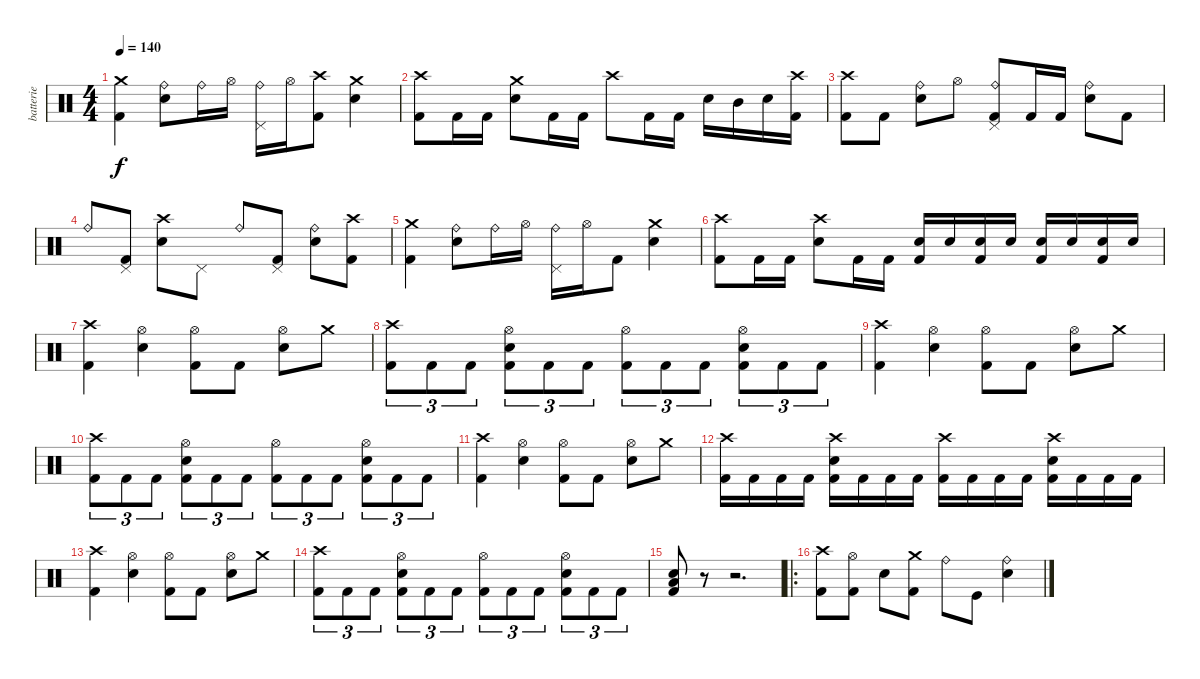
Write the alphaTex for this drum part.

\track ("batterie" "batterie") {instrument percussion}
\staff {score}
\articulation defaults
\ts (4 4)
\tempo 140
\clef neutral
\ks c
("Crash medium (hit)" "Kick (hit) 2").4{dy f} ("Ride (bell)" "Electric Snare (hit)").8 "Ride (bell)".16 "Hi-Hat (open)".16 ("Ride (bell)" "Pedal Hi-Hat (hit)").16 "Hi-Hat (open)".16 ("Crash high (hit)" "Kick (hit) 2").8 ("Crash medium (hit)" "Electric Snare (hit)").4 |
("Crash high (hit)" "Kick (hit) 2").8 "Kick (hit) 2".16 "Kick (hit) 2".16 ("Crash medium (hit)" "Electric Snare (hit)").8 "Kick (hit) 2".16 "Kick (hit) 2".16 "Crash high (hit)".8 "Kick (hit) 2".16 "Kick (hit) 2".16 "Electric Snare (hit)".16 "Mid Tom (hit)".16 "Electric Snare (hit)".16 ("Crash high (hit)" "Kick (hit) 2").16 |
("Crash high (hit)" "Kick (hit) 2").8 "Kick (hit) 2".8 ("Ride (bell)" "Electric Snare (hit)").8 "Hi-Hat (open)".8 ("Ride (bell)" "Pedal Hi-Hat (hit)" "Kick (hit) 2").8 "Kick (hit) 2".16 "Kick (hit) 2".16 ("Ride (bell)" "Electric Snare (hit)").8 "Kick (hit) 2".8 |
"Ride (bell)".8 ("Pedal Hi-Hat (hit)" "Kick (hit) 2").8 ("Crash high (hit)" "Electric Snare (hit)").8 "Pedal Hi-Hat (hit)".8 "Ride (bell)".8 ("Pedal Hi-Hat (hit)" "Kick (hit) 2").8 ("Ride (bell)" "Electric Snare (hit)").8 ("Crash high (hit)" "Kick (hit) 2").8 |
("Crash medium (hit)" "Kick (hit) 2").4 ("Ride (bell)" "Electric Snare (hit)").8 "Ride (bell)".16 "Hi-Hat (open)".16 ("Ride (bell)" "Pedal Hi-Hat (hit)").16 "Hi-Hat (open)".16 "Kick (hit) 2".8 ("Crash medium (hit)" "Electric Snare (hit)").4 |
("Crash high (hit)" "Kick (hit) 2").8 "Kick (hit) 2".16 "Kick (hit) 2".16 ("Crash high (hit)" "Electric Snare (hit)").8 "Kick (hit) 2".16 "Kick (hit) 2".16 ("Electric Snare (hit)" "Kick (hit) 2").16 "Electric Snare (hit)".16 ("Electric Snare (hit)" "Kick (hit) 2").16 "Electric Snare (hit)".16 ("Electric Snare (hit)" "Kick (hit) 2").16 "Electric Snare (hit)".16 ("Electric Snare (hit)" "Kick (hit) 2").16 "Electric Snare (hit)".16 |
("Crash high (hit)" "Kick (hit) 2").4 ("Hi-Hat (open)" "Electric Snare (hit)").4 ("Hi-Hat (open)" "Kick (hit) 2").8 "Kick (hit) 2".8 ("Hi-Hat (open)" "Electric Snare (hit)").8 "Crash medium (hit)".8 |
("Crash high (hit)" "Kick (hit) 2").8{tu (3 2)} "Kick (hit) 2".8{tu (3 2)} "Kick (hit) 2".8{tu (3 2)} ("Hi-Hat (open)" "Electric Snare (hit)" "Kick (hit) 2").8{tu (3 2)} "Kick (hit) 2".8{tu (3 2)} "Kick (hit) 2".8{tu (3 2)} ("Hi-Hat (open)" "Kick (hit) 2").8{tu (3 2)} "Kick (hit) 2".8{tu (3 2)} "Kick (hit) 2".8{tu (3 2)} ("Hi-Hat (open)" "Electric Snare (hit)" "Kick (hit) 2").8{tu (3 2)} "Kick (hit) 2".8{tu (3 2)} "Kick (hit) 2".8{tu (3 2)} |
("Crash high (hit)" "Kick (hit) 2").4 ("Hi-Hat (open)" "Electric Snare (hit)").4 ("Hi-Hat (open)" "Kick (hit) 2").8 "Kick (hit) 2".8 ("Hi-Hat (open)" "Electric Snare (hit)").8 "Crash medium (hit)".8 |
("Crash high (hit)" "Kick (hit) 2").8{tu (3 2)} "Kick (hit) 2".8{tu (3 2)} "Kick (hit) 2".8{tu (3 2)} ("Hi-Hat (open)" "Electric Snare (hit)" "Kick (hit) 2").8{tu (3 2)} "Kick (hit) 2".8{tu (3 2)} "Kick (hit) 2".8{tu (3 2)} ("Hi-Hat (open)" "Kick (hit) 2").8{tu (3 2)} "Kick (hit) 2".8{tu (3 2)} "Kick (hit) 2".8{tu (3 2)} ("Hi-Hat (open)" "Electric Snare (hit)" "Kick (hit) 2").8{tu (3 2)} "Kick (hit) 2".8{tu (3 2)} "Kick (hit) 2".8{tu (3 2)} |
("Crash high (hit)" "Kick (hit) 2").4 ("Hi-Hat (open)" "Electric Snare (hit)").4 ("Hi-Hat (open)" "Kick (hit) 2").8 "Kick (hit) 2".8 ("Hi-Hat (open)" "Electric Snare (hit)").8 "Crash medium (hit)".8 |
("Crash high (hit)" "Kick (hit) 2").16 "Kick (hit) 2".16 "Kick (hit) 2".16 "Kick (hit) 2".16 ("Crash high (hit)" "Electric Snare (hit)" "Kick (hit) 2").16 "Kick (hit) 2".16 "Kick (hit) 2".16 "Kick (hit) 2".16 ("Crash high (hit)" "Kick (hit) 2").16 "Kick (hit) 2".16 "Kick (hit) 2".16 "Kick (hit) 2".16 ("Crash high (hit)" "Electric Snare (hit)" "Kick (hit) 2").16 "Kick (hit) 2".16 "Kick (hit) 2".16 "Kick (hit) 2".16 |
("Crash high (hit)" "Kick (hit) 2").4 ("Hi-Hat (open)" "Electric Snare (hit)").4 ("Hi-Hat (open)" "Kick (hit) 2").8 "Kick (hit) 2".8 ("Hi-Hat (open)" "Electric Snare (hit)").8 "Crash medium (hit)".8 |
("Crash high (hit)" "Kick (hit) 2").8{tu (3 2)} "Kick (hit) 2".8{tu (3 2)} "Kick (hit) 2".8{tu (3 2)} ("Hi-Hat (open)" "Electric Snare (hit)" "Kick (hit) 2").8{tu (3 2)} "Kick (hit) 2".8{tu (3 2)} "Kick (hit) 2".8{tu (3 2)} ("Hi-Hat (open)" "Kick (hit) 2").8{tu (3 2)} "Kick (hit) 2".8{tu (3 2)} "Kick (hit) 2".8{tu (3 2)} ("Hi-Hat (open)" "Electric Snare (hit)" "Kick (hit) 2").8{tu (3 2)} "Kick (hit) 2".8{tu (3 2)} "Kick (hit) 2".8{tu (3 2)} |
("Electric Snare (hit)" "Low Floor Tom (hit)" "Kick (hit) 2").8 r.8 r.2{d} |
\ro
("Crash high (hit)" "Kick (hit) 2").8{volume 16} ("Hi-Hat (open)" "Kick (hit) 2").8 "Electric Snare (hit)".8 ("Crash medium (hit)" "Kick (hit) 2").8 "Ride (bell)".8 "Kick (hit)".8 ("Ride (bell)" "Electric Snare (hit)").4
